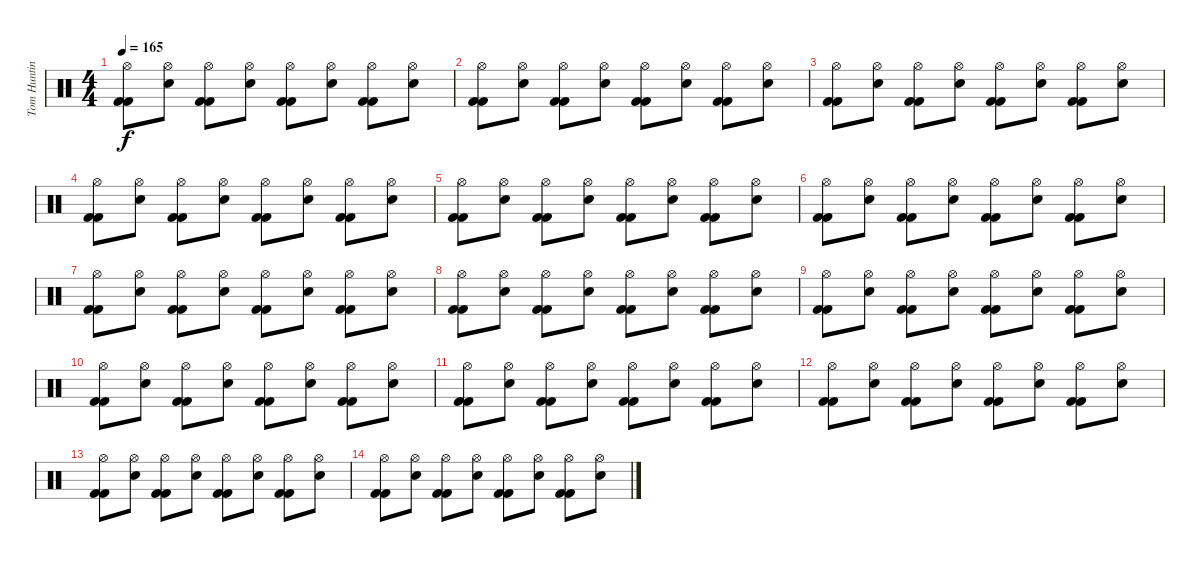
\track ("Tom Hunting" "Tom Huntin") {instrument percussion}
\staff {score}
\articulation defaults
\ts (4 4)
\tempo 165
\clef neutral
\ks c
("Kick (hit) 2" "Kick (hit) 2" "Hi-Hat (open)").8{dy f} ("Electric Snare (hit)" "Hi-Hat (open)").8 ("Kick (hit) 2" "Kick (hit) 2" "Hi-Hat (open)").8 ("Electric Snare (hit)" "Hi-Hat (open)").8 ("Kick (hit) 2" "Kick (hit) 2" "Hi-Hat (open)").8 ("Electric Snare (hit)" "Hi-Hat (open)").8 ("Kick (hit) 2" "Kick (hit) 2" "Hi-Hat (open)").8 ("Electric Snare (hit)" "Hi-Hat (open)").8 |
("Kick (hit) 2" "Kick (hit) 2" "Hi-Hat (open)").8 ("Electric Snare (hit)" "Hi-Hat (open)").8 ("Kick (hit) 2" "Kick (hit) 2" "Hi-Hat (open)").8 ("Electric Snare (hit)" "Hi-Hat (open)").8 ("Kick (hit) 2" "Kick (hit) 2" "Hi-Hat (open)").8 ("Electric Snare (hit)" "Hi-Hat (open)").8 ("Kick (hit) 2" "Kick (hit) 2" "Hi-Hat (open)").8 ("Electric Snare (hit)" "Hi-Hat (open)").8 |
("Kick (hit) 2" "Kick (hit) 2" "Hi-Hat (open)").8 ("Electric Snare (hit)" "Hi-Hat (open)").8 ("Kick (hit) 2" "Kick (hit) 2" "Hi-Hat (open)").8 ("Electric Snare (hit)" "Hi-Hat (open)").8 ("Kick (hit) 2" "Kick (hit) 2" "Hi-Hat (open)").8 ("Electric Snare (hit)" "Hi-Hat (open)").8 ("Kick (hit) 2" "Kick (hit) 2" "Hi-Hat (open)").8 ("Electric Snare (hit)" "Hi-Hat (open)").8 |
("Kick (hit) 2" "Kick (hit) 2" "Hi-Hat (open)").8 ("Electric Snare (hit)" "Hi-Hat (open)").8 ("Kick (hit) 2" "Kick (hit) 2" "Hi-Hat (open)").8 ("Electric Snare (hit)" "Hi-Hat (open)").8 ("Kick (hit) 2" "Kick (hit) 2" "Hi-Hat (open)").8 ("Electric Snare (hit)" "Hi-Hat (open)").8 ("Kick (hit) 2" "Kick (hit) 2" "Hi-Hat (open)").8 ("Electric Snare (hit)" "Hi-Hat (open)").8 |
("Kick (hit) 2" "Kick (hit) 2" "Hi-Hat (open)").8 ("Electric Snare (hit)" "Hi-Hat (open)").8 ("Kick (hit) 2" "Kick (hit) 2" "Hi-Hat (open)").8 ("Electric Snare (hit)" "Hi-Hat (open)").8 ("Kick (hit) 2" "Kick (hit) 2" "Hi-Hat (open)").8 ("Electric Snare (hit)" "Hi-Hat (open)").8 ("Kick (hit) 2" "Kick (hit) 2" "Hi-Hat (open)").8 ("Electric Snare (hit)" "Hi-Hat (open)").8 |
("Kick (hit) 2" "Kick (hit) 2" "Hi-Hat (open)").8 ("Electric Snare (hit)" "Hi-Hat (open)").8 ("Kick (hit) 2" "Kick (hit) 2" "Hi-Hat (open)").8 ("Electric Snare (hit)" "Hi-Hat (open)").8 ("Kick (hit) 2" "Kick (hit) 2" "Hi-Hat (open)").8 ("Electric Snare (hit)" "Hi-Hat (open)").8 ("Kick (hit) 2" "Kick (hit) 2" "Hi-Hat (open)").8 ("Electric Snare (hit)" "Hi-Hat (open)").8 |
("Kick (hit) 2" "Kick (hit) 2" "Hi-Hat (open)").8 ("Electric Snare (hit)" "Hi-Hat (open)").8 ("Kick (hit) 2" "Kick (hit) 2" "Hi-Hat (open)").8 ("Electric Snare (hit)" "Hi-Hat (open)").8 ("Kick (hit) 2" "Kick (hit) 2" "Hi-Hat (open)").8 ("Electric Snare (hit)" "Hi-Hat (open)").8 ("Kick (hit) 2" "Kick (hit) 2" "Hi-Hat (open)").8 ("Electric Snare (hit)" "Hi-Hat (open)").8 |
("Kick (hit) 2" "Kick (hit) 2" "Hi-Hat (open)").8 ("Electric Snare (hit)" "Hi-Hat (open)").8 ("Kick (hit) 2" "Kick (hit) 2" "Hi-Hat (open)").8 ("Electric Snare (hit)" "Hi-Hat (open)").8 ("Kick (hit) 2" "Kick (hit) 2" "Hi-Hat (open)").8 ("Electric Snare (hit)" "Hi-Hat (open)").8 ("Kick (hit) 2" "Kick (hit) 2" "Hi-Hat (open)").8 ("Electric Snare (hit)" "Hi-Hat (open)").8 |
("Kick (hit) 2" "Kick (hit) 2" "Hi-Hat (open)").8 ("Electric Snare (hit)" "Hi-Hat (open)").8 ("Kick (hit) 2" "Kick (hit) 2" "Hi-Hat (open)").8 ("Electric Snare (hit)" "Hi-Hat (open)").8 ("Kick (hit) 2" "Kick (hit) 2" "Hi-Hat (open)").8 ("Electric Snare (hit)" "Hi-Hat (open)").8 ("Kick (hit) 2" "Kick (hit) 2" "Hi-Hat (open)").8 ("Electric Snare (hit)" "Hi-Hat (open)").8 |
("Kick (hit) 2" "Kick (hit) 2" "Hi-Hat (open)").8 ("Electric Snare (hit)" "Hi-Hat (open)").8 ("Kick (hit) 2" "Kick (hit) 2" "Hi-Hat (open)").8 ("Electric Snare (hit)" "Hi-Hat (open)").8 ("Kick (hit) 2" "Kick (hit) 2" "Hi-Hat (open)").8 ("Electric Snare (hit)" "Hi-Hat (open)").8 ("Kick (hit) 2" "Kick (hit) 2" "Hi-Hat (open)").8 ("Electric Snare (hit)" "Hi-Hat (open)").8 |
("Kick (hit) 2" "Kick (hit) 2" "Hi-Hat (open)").8 ("Electric Snare (hit)" "Hi-Hat (open)").8 ("Kick (hit) 2" "Kick (hit) 2" "Hi-Hat (open)").8 ("Electric Snare (hit)" "Hi-Hat (open)").8 ("Kick (hit) 2" "Kick (hit) 2" "Hi-Hat (open)").8 ("Electric Snare (hit)" "Hi-Hat (open)").8 ("Kick (hit) 2" "Kick (hit) 2" "Hi-Hat (open)").8 ("Electric Snare (hit)" "Hi-Hat (open)").8 |
("Kick (hit) 2" "Kick (hit) 2" "Hi-Hat (open)").8 ("Electric Snare (hit)" "Hi-Hat (open)").8 ("Kick (hit) 2" "Kick (hit) 2" "Hi-Hat (open)").8 ("Electric Snare (hit)" "Hi-Hat (open)").8 ("Kick (hit) 2" "Kick (hit) 2" "Hi-Hat (open)").8 ("Electric Snare (hit)" "Hi-Hat (open)").8 ("Kick (hit) 2" "Kick (hit) 2" "Hi-Hat (open)").8 ("Electric Snare (hit)" "Hi-Hat (open)").8 |
("Kick (hit) 2" "Kick (hit) 2" "Hi-Hat (open)").8 ("Electric Snare (hit)" "Hi-Hat (open)").8 ("Kick (hit) 2" "Kick (hit) 2" "Hi-Hat (open)").8 ("Electric Snare (hit)" "Hi-Hat (open)").8 ("Kick (hit) 2" "Kick (hit) 2" "Hi-Hat (open)").8 ("Electric Snare (hit)" "Hi-Hat (open)").8 ("Kick (hit) 2" "Kick (hit) 2" "Hi-Hat (open)").8 ("Electric Snare (hit)" "Hi-Hat (open)").8 |
("Kick (hit) 2" "Kick (hit) 2" "Hi-Hat (open)").8 ("Electric Snare (hit)" "Hi-Hat (open)").8 ("Kick (hit) 2" "Kick (hit) 2" "Hi-Hat (open)").8 ("Electric Snare (hit)" "Hi-Hat (open)").8 ("Kick (hit) 2" "Kick (hit) 2" "Hi-Hat (open)").8 ("Electric Snare (hit)" "Hi-Hat (open)").8 ("Kick (hit) 2" "Kick (hit) 2" "Hi-Hat (open)").8 ("Electric Snare (hit)" "Hi-Hat (open)").8
